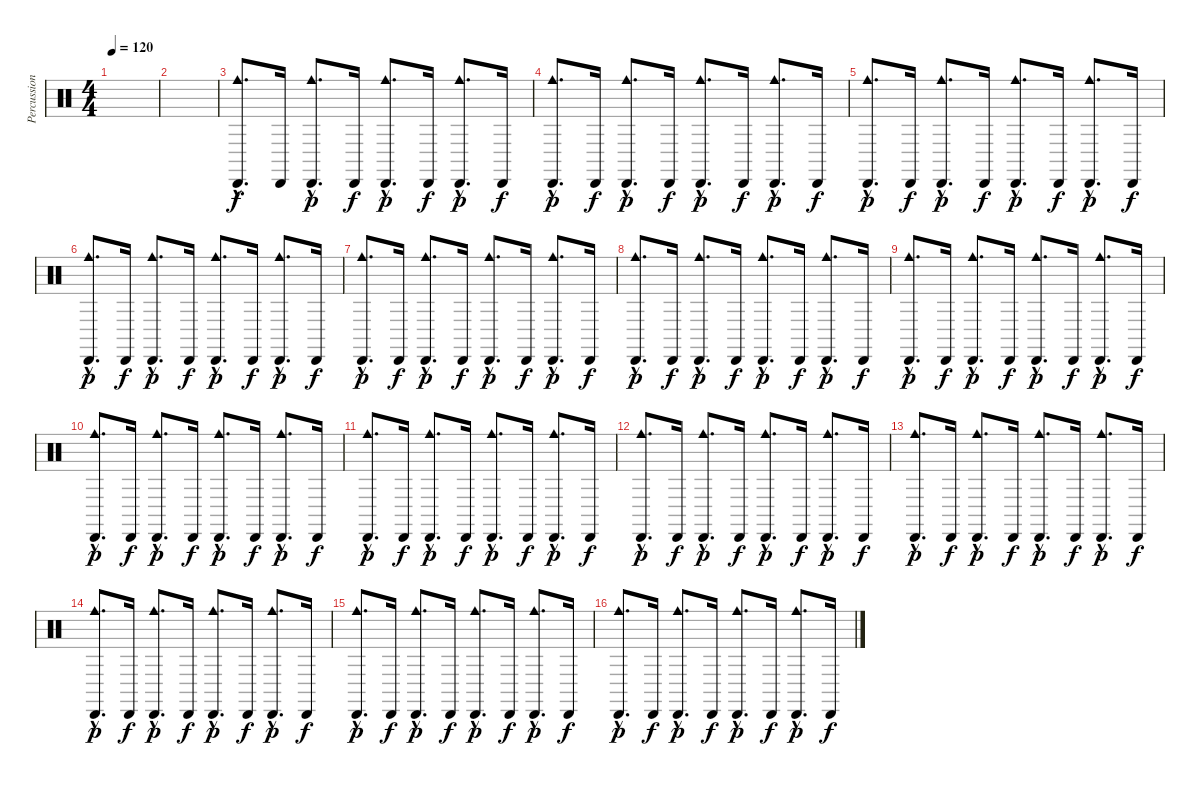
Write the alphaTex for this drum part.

\track ("Percussions" "Percussion") {instrument percussion}
\staff {score}
\articulation defaults
\ts (4 4)
\tempo 120
\clef neutral
\ks c
|
|
("Cabasa (hit)"{hac} "Cowbell medium (hit)"{hac}).8{d} "Cabasa (hit)".16{dy f} ("Cabasa (hit)"{hac} "Cowbell medium (hit)"{hac}).8{d dy p} "Cabasa (hit)".16{dy f} ("Cabasa (hit)"{hac} "Cowbell medium (hit)"{hac}).8{d dy p} "Cabasa (hit)".16{dy f} ("Cabasa (hit)"{hac} "Cowbell medium (hit)"{hac}).8{d dy p} "Cabasa (hit)".16{dy f} |
("Cabasa (hit)"{hac} "Cowbell medium (hit)"{hac}).8{d dy p} "Cabasa (hit)".16{dy f} ("Cabasa (hit)"{hac} "Cowbell medium (hit)"{hac}).8{d dy p} "Cabasa (hit)".16{dy f} ("Cabasa (hit)"{hac} "Cowbell medium (hit)"{hac}).8{d dy p} "Cabasa (hit)".16{dy f} ("Cabasa (hit)"{hac} "Cowbell medium (hit)"{hac}).8{d dy p} "Cabasa (hit)".16{dy f} |
("Cabasa (hit)"{hac} "Cowbell medium (hit)"{hac}).8{d dy p} "Cabasa (hit)".16{dy f} ("Cabasa (hit)"{hac} "Cowbell medium (hit)"{hac}).8{d dy p} "Cabasa (hit)".16{dy f} ("Cabasa (hit)"{hac} "Cowbell medium (hit)"{hac}).8{d dy p} "Cabasa (hit)".16{dy f} ("Cabasa (hit)"{hac} "Cowbell medium (hit)"{hac}).8{d dy p} "Cabasa (hit)".16{dy f} |
("Cabasa (hit)"{hac} "Cowbell medium (hit)"{hac}).8{d dy p} "Cabasa (hit)".16{dy f} ("Cabasa (hit)"{hac} "Cowbell medium (hit)"{hac}).8{d dy p} "Cabasa (hit)".16{dy f} ("Cabasa (hit)"{hac} "Cowbell medium (hit)"{hac}).8{d dy p} "Cabasa (hit)".16{dy f} ("Cabasa (hit)"{hac} "Cowbell medium (hit)"{hac}).8{d dy p} "Cabasa (hit)".16{dy f} |
("Cabasa (hit)"{hac} "Cowbell medium (hit)"{hac}).8{d dy p} "Cabasa (hit)".16{dy f} ("Cabasa (hit)"{hac} "Cowbell medium (hit)"{hac}).8{d dy p} "Cabasa (hit)".16{dy f} ("Cabasa (hit)"{hac} "Cowbell medium (hit)"{hac}).8{d dy p} "Cabasa (hit)".16{dy f} ("Cabasa (hit)"{hac} "Cowbell medium (hit)"{hac}).8{d dy p} "Cabasa (hit)".16{dy f} |
("Cabasa (hit)"{hac} "Cowbell medium (hit)"{hac}).8{d dy p} "Cabasa (hit)".16{dy f} ("Cabasa (hit)"{hac} "Cowbell medium (hit)"{hac}).8{d dy p} "Cabasa (hit)".16{dy f} ("Cabasa (hit)"{hac} "Cowbell medium (hit)"{hac}).8{d dy p} "Cabasa (hit)".16{dy f} ("Cabasa (hit)"{hac} "Cowbell medium (hit)"{hac}).8{d dy p} "Cabasa (hit)".16{dy f} |
("Cabasa (hit)"{hac} "Cowbell medium (hit)"{hac}).8{d dy p} "Cabasa (hit)".16{dy f} ("Cabasa (hit)"{hac} "Cowbell medium (hit)"{hac}).8{d dy p} "Cabasa (hit)".16{dy f} ("Cabasa (hit)"{hac} "Cowbell medium (hit)"{hac}).8{d dy p} "Cabasa (hit)".16{dy f} ("Cabasa (hit)"{hac} "Cowbell medium (hit)"{hac}).8{d dy p} "Cabasa (hit)".16{dy f} |
("Cabasa (hit)"{hac} "Cowbell medium (hit)"{hac}).8{d dy p} "Cabasa (hit)".16{dy f} ("Cabasa (hit)"{hac} "Cowbell medium (hit)"{hac}).8{d dy p} "Cabasa (hit)".16{dy f} ("Cabasa (hit)"{hac} "Cowbell medium (hit)"{hac}).8{d dy p} "Cabasa (hit)".16{dy f} ("Cabasa (hit)"{hac} "Cowbell medium (hit)"{hac}).8{d dy p} "Cabasa (hit)".16{dy f} |
("Cabasa (hit)"{hac} "Cowbell medium (hit)"{hac}).8{d dy p} "Cabasa (hit)".16{dy f} ("Cabasa (hit)"{hac} "Cowbell medium (hit)"{hac}).8{d dy p} "Cabasa (hit)".16{dy f} ("Cabasa (hit)"{hac} "Cowbell medium (hit)"{hac}).8{d dy p} "Cabasa (hit)".16{dy f} ("Cabasa (hit)"{hac} "Cowbell medium (hit)"{hac}).8{d dy p} "Cabasa (hit)".16{dy f} |
("Cabasa (hit)"{hac} "Cowbell medium (hit)"{hac}).8{d dy p} "Cabasa (hit)".16{dy f} ("Cabasa (hit)"{hac} "Cowbell medium (hit)"{hac}).8{d dy p} "Cabasa (hit)".16{dy f} ("Cabasa (hit)"{hac} "Cowbell medium (hit)"{hac}).8{d dy p} "Cabasa (hit)".16{dy f} ("Cabasa (hit)"{hac} "Cowbell medium (hit)"{hac}).8{d dy p} "Cabasa (hit)".16{dy f} |
("Cabasa (hit)"{hac} "Cowbell medium (hit)"{hac}).8{d dy p} "Cabasa (hit)".16{dy f} ("Cabasa (hit)"{hac} "Cowbell medium (hit)"{hac}).8{d dy p} "Cabasa (hit)".16{dy f} ("Cabasa (hit)"{hac} "Cowbell medium (hit)"{hac}).8{d dy p} "Cabasa (hit)".16{dy f} ("Cabasa (hit)"{hac} "Cowbell medium (hit)"{hac}).8{d dy p} "Cabasa (hit)".16{dy f} |
("Cabasa (hit)"{hac} "Cowbell medium (hit)"{hac}).8{d dy p} "Cabasa (hit)".16{dy f} ("Cabasa (hit)"{hac} "Cowbell medium (hit)"{hac}).8{d dy p} "Cabasa (hit)".16{dy f} ("Cabasa (hit)"{hac} "Cowbell medium (hit)"{hac}).8{d dy p} "Cabasa (hit)".16{dy f} ("Cabasa (hit)"{hac} "Cowbell medium (hit)"{hac}).8{d dy p} "Cabasa (hit)".16{dy f} |
("Cabasa (hit)"{hac} "Cowbell medium (hit)"{hac}).8{d dy p} "Cabasa (hit)".16{dy f} ("Cabasa (hit)"{hac} "Cowbell medium (hit)"{hac}).8{d dy p} "Cabasa (hit)".16{dy f} ("Cabasa (hit)"{hac} "Cowbell medium (hit)"{hac}).8{d dy p} "Cabasa (hit)".16{dy f} ("Cabasa (hit)"{hac} "Cowbell medium (hit)"{hac}).8{d dy p} "Cabasa (hit)".16{dy f} |
("Cabasa (hit)"{hac} "Cowbell medium (hit)"{hac}).8{d dy p} "Cabasa (hit)".16{dy f} ("Cabasa (hit)"{hac} "Cowbell medium (hit)"{hac}).8{d dy p} "Cabasa (hit)".16{dy f} ("Cabasa (hit)"{hac} "Cowbell medium (hit)"{hac}).8{d dy p} "Cabasa (hit)".16{dy f} ("Cabasa (hit)"{hac} "Cowbell medium (hit)"{hac}).8{d dy p} "Cabasa (hit)".16{dy f}
